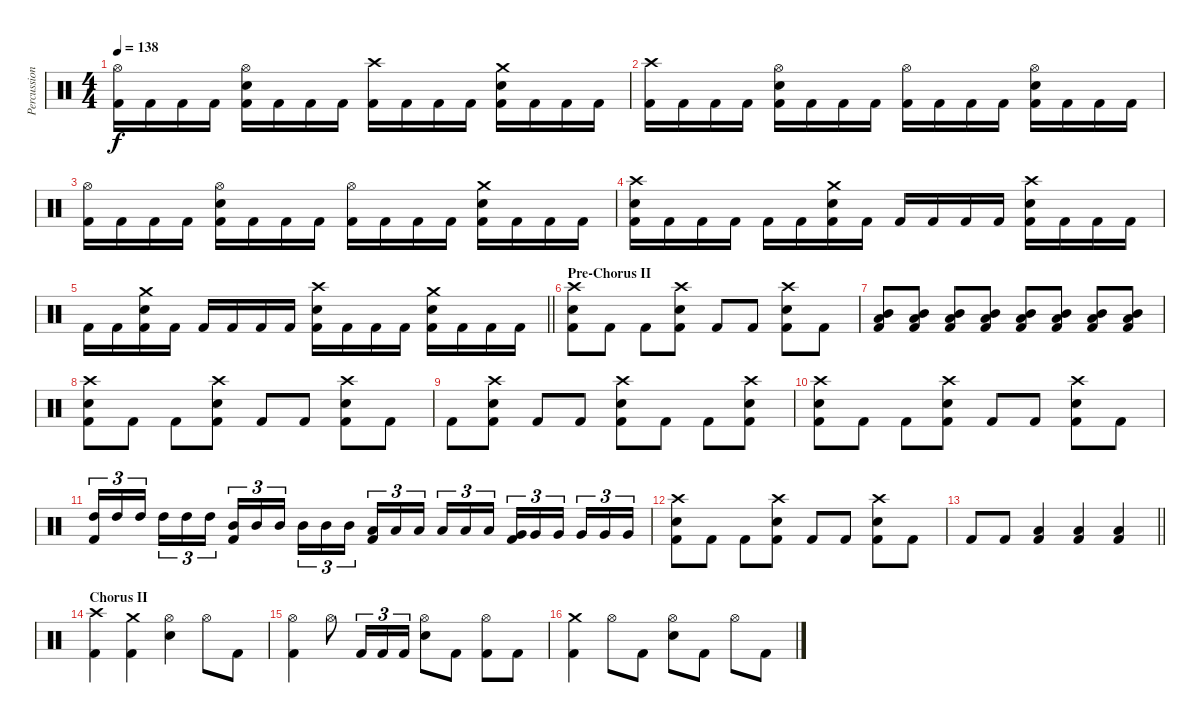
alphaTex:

\track ("Percussion" "Percussion") {instrument percussion}
\staff {score}
\articulation defaults
\ts (4 4)
\tempo 138
\clef neutral
\ks c
("Hi-Hat (open)" "Kick (hit) 2").16{dy f} "Kick (hit) 2".16 "Kick (hit) 2".16 "Kick (hit) 2".16 ("Hi-Hat (open)" "Electric Snare (hit)" "Kick (hit) 2").16 "Kick (hit) 2".16 "Kick (hit) 2".16 "Kick (hit) 2".16 ("Crash high (hit)" "Kick (hit) 2").16 "Kick (hit) 2".16 "Kick (hit) 2".16 "Kick (hit) 2".16 ("Crash medium (hit)" "Electric Snare (hit)" "Kick (hit) 2").16 "Kick (hit) 2".16 "Kick (hit) 2".16 "Kick (hit) 2".16 |
("Crash high (hit)" "Kick (hit) 2").16 "Kick (hit) 2".16 "Kick (hit) 2".16 "Kick (hit) 2".16 ("Hi-Hat (open)" "Electric Snare (hit)" "Kick (hit) 2").16 "Kick (hit) 2".16 "Kick (hit) 2".16 "Kick (hit) 2".16 ("Hi-Hat (open)" "Kick (hit) 2").16 "Kick (hit) 2".16 "Kick (hit) 2".16 "Kick (hit) 2".16 ("Hi-Hat (open)" "Electric Snare (hit)" "Kick (hit) 2").16 "Kick (hit) 2".16 "Kick (hit) 2".16 "Kick (hit) 2".16 |
("Hi-Hat (open)" "Kick (hit) 2").16 "Kick (hit) 2".16 "Kick (hit) 2".16 "Kick (hit) 2".16 ("Hi-Hat (open)" "Electric Snare (hit)" "Kick (hit) 2").16 "Kick (hit) 2".16 "Kick (hit) 2".16 "Kick (hit) 2".16 ("Hi-Hat (open)" "Kick (hit) 2").16 "Kick (hit) 2".16 "Kick (hit) 2".16 "Kick (hit) 2".16 ("Crash medium (hit)" "Electric Snare (hit)" "Kick (hit) 2").16 "Kick (hit) 2".16 "Kick (hit) 2".16 "Kick (hit) 2".16 |
("Crash high (hit)" "Electric Snare (hit)" "Kick (hit) 2").16 "Kick (hit) 2".16 "Kick (hit) 2".16 "Kick (hit) 2".16 "Kick (hit) 2".16 "Kick (hit) 2".16 ("Crash medium (hit)" "Electric Snare (hit)" "Kick (hit) 2").16 "Kick (hit) 2".16 "Kick (hit) 2".16 "Kick (hit) 2".16 "Kick (hit) 2".16 "Kick (hit) 2".16 ("Crash high (hit)" "Electric Snare (hit)" "Kick (hit) 2").16 "Kick (hit) 2".16 "Kick (hit) 2".16 "Kick (hit) 2".16 |
\barLineRight lightlight "Kick (hit) 2".16 "Kick (hit) 2".16
("Crash medium (hit)" "Electric Snare (hit)" "Kick (hit) 2").16 "Kick (hit) 2".16 "Kick (hit) 2".16 "Kick (hit) 2".16 "Kick (hit) 2".16 "Kick (hit) 2".16 ("Crash high (hit)" "Electric Snare (hit)" "Kick (hit) 2").16 "Kick (hit) 2".16 "Kick (hit) 2".16 "Kick (hit) 2".16 ("Crash medium (hit)" "Electric Snare (hit)" "Kick (hit) 2").16 "Kick (hit) 2".16 "Kick (hit) 2".16 "Kick (hit) 2".16 |
\section ("" "Pre-Chorus II")
("Crash high (hit)" "Electric Snare (hit)" "Kick (hit) 2").8 "Kick (hit) 2".8 "Kick (hit) 2".8 ("Crash high (hit)" "Electric Snare (hit)" "Kick (hit) 2").8 "Kick (hit) 2".8 "Kick (hit) 2".8 ("Crash high (hit)" "Electric Snare (hit)" "Kick (hit) 2").8 "Kick (hit) 2".8 |
("Mid Tom (hit)" "Low Tom (hit)" "Kick (hit) 2").8 ("Mid Tom (hit)" "Low Tom (hit)" "Kick (hit) 2").8 ("Mid Tom (hit)" "Low Tom (hit)" "Kick (hit) 2").8 ("Mid Tom (hit)" "Low Tom (hit)" "Kick (hit) 2").8 ("Mid Tom (hit)" "Low Tom (hit)" "Kick (hit) 2").8 ("Mid Tom (hit)" "Low Tom (hit)" "Kick (hit) 2").8 ("Mid Tom (hit)" "Low Tom (hit)" "Kick (hit) 2").8 ("Mid Tom (hit)" "Low Tom (hit)" "Kick (hit) 2").8 |
("Crash high (hit)" "Electric Snare (hit)" "Kick (hit) 2").8 "Kick (hit) 2".8 "Kick (hit) 2".8 ("Crash high (hit)" "Electric Snare (hit)" "Kick (hit) 2").8 "Kick (hit) 2".8 "Kick (hit) 2".8 ("Crash high (hit)" "Electric Snare (hit)" "Kick (hit) 2").8 "Kick (hit) 2".8 |
"Kick (hit) 2".8 ("Crash high (hit)" "Electric Snare (hit)" "Kick (hit) 2").8 "Kick (hit) 2".8 "Kick (hit) 2".8 ("Crash high (hit)" "Electric Snare (hit)" "Kick (hit) 2").8 "Kick (hit) 2".8 "Kick (hit) 2".8 ("Crash high (hit)" "Electric Snare (hit)" "Kick (hit) 2").8 |
("Crash high (hit)" "Electric Snare (hit)" "Kick (hit) 2").8 "Kick (hit) 2".8 "Kick (hit) 2".8 ("Crash high (hit)" "Electric Snare (hit)" "Kick (hit) 2").8 "Kick (hit) 2".8 "Kick (hit) 2".8 ("Crash high (hit)" "Electric Snare (hit)" "Kick (hit) 2").8 "Kick (hit) 2".8 |
("High Tom (hit)" "Kick (hit) 2").16{tu (3 2)} "High Tom (hit)".16{tu (3 2)} "High Tom (hit)".16{tu (3 2) beam splitsecondary} "High Tom (hit)".16{tu (3 2)} "High Tom (hit)".16{tu (3 2)} "High Tom (hit)".16{tu (3 2)} ("Mid Tom (hit)" "Kick (hit) 2").16{tu (3 2)} "Mid Tom (hit)".16{tu (3 2)} "Mid Tom (hit)".16{tu (3 2) beam splitsecondary} "Mid Tom (hit)".16{tu (3 2)} "Mid Tom (hit)".16{tu (3 2)} "Mid Tom (hit)".16{tu (3 2)} ("Low Tom (hit)" "Kick (hit) 2").16{tu (3 2)} "Low Tom (hit)".16{tu (3 2)} "Low Tom (hit)".16{tu (3 2) beam splitsecondary} "Low Tom (hit)".16{tu (3 2)} "Low Tom (hit)".16{tu (3 2)} "Low Tom (hit)".16{tu (3 2)} ("Very Low Tom (hit)" "Kick (hit) 2").16{tu (3 2)} "Very Low Tom (hit)".16{tu (3 2)} "Very Low Tom (hit)".16{tu (3 2) beam splitsecondary} "Very Low Tom (hit)".16{tu (3 2)} "Very Low Tom (hit)".16{tu (3 2)} "Very Low Tom (hit)".16{tu (3 2)} |
("Crash high (hit)" "Electric Snare (hit)" "Kick (hit) 2").8 "Kick (hit) 2".8 "Kick (hit) 2".8 ("Crash high (hit)" "Electric Snare (hit)" "Kick (hit) 2").8 "Kick (hit) 2".8 "Kick (hit) 2".8 ("Crash high (hit)" "Electric Snare (hit)" "Kick (hit) 2").8 "Kick (hit) 2".8 |
\barLineRight lightlight "Kick (hit) 2".8 "Kick (hit) 2".8
("Low Tom (hit)" "Kick (hit) 2").4 ("Low Tom (hit)" "Kick (hit) 2").4 ("Low Tom (hit)" "Kick (hit) 2").4 |
\section ("" "Chorus II")
("Crash high (hit)" "Kick (hit) 2").4 ("Crash medium (hit)" "Kick (hit) 2").4 ("Hi-Hat (open)" "Electric Snare (hit)").4 "Hi-Hat (open)".8 "Kick (hit) 2".8 |
("Hi-Hat (open)" "Kick (hit) 2").4 "Hi-Hat (open)".8 "Kick (hit) 2".16{tu (3 2)} "Kick (hit) 2".16{tu (3 2)} "Kick (hit) 2".16{tu (3 2)} ("Hi-Hat (open)" "Electric Snare (hit)").8 "Kick (hit) 2".8 ("Hi-Hat (open)" "Kick (hit) 2").8 "Kick (hit) 2".8 |
("Crash medium (hit)" "Kick (hit) 2").4 "Hi-Hat (open)".8 "Kick (hit) 2".8 ("Hi-Hat (open)" "Electric Snare (hit)").8 "Kick (hit) 2".8 "Hi-Hat (open)".8 "Kick (hit) 2".8
